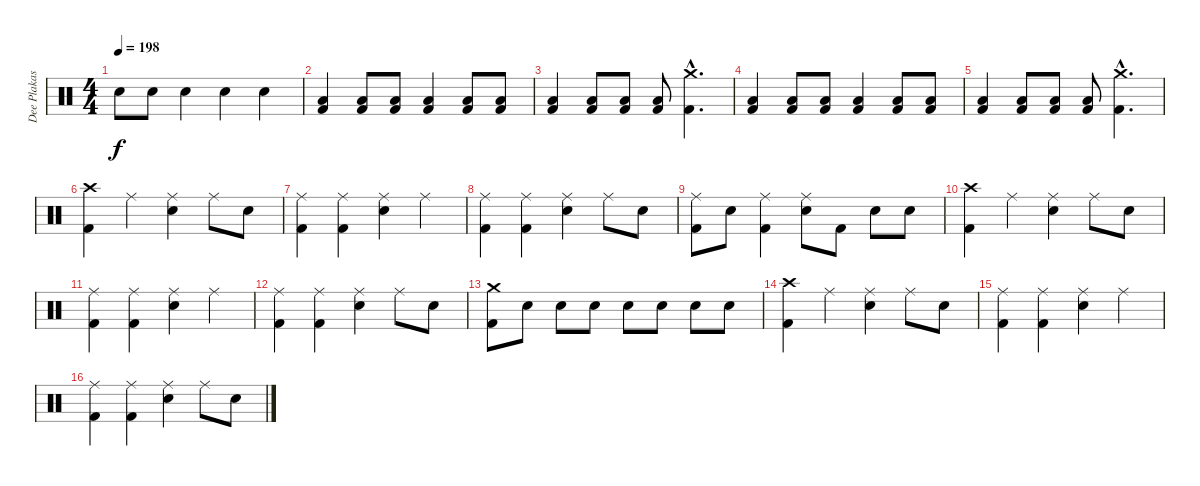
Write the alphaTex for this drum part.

\track ("Dee Plakas" "Dee Plakas") {instrument percussion}
\staff {score}
\articulation defaults
\ts (4 4)
\tempo 198
\clef neutral
\ks c "Snare (hit) 2".8{dy f} "Snare (hit) 2".8 "Snare (hit) 2".4 "Snare (hit) 2".4 "Snare (hit) 2".4
|
("Low Floor Tom (hit)" "Kick (hit) 2").4 ("Low Floor Tom (hit)" "Kick (hit) 2").8 ("Low Floor Tom (hit)" "Kick (hit) 2").8 ("Low Floor Tom (hit)" "Kick (hit) 2").4 ("Low Floor Tom (hit)" "Kick (hit) 2").8 ("Low Floor Tom (hit)" "Kick (hit) 2").8 |
("Low Floor Tom (hit)" "Kick (hit) 2").4 ("Low Floor Tom (hit)" "Kick (hit) 2").8 ("Low Floor Tom (hit)" "Kick (hit) 2").8 ("Low Floor Tom (hit)" "Kick (hit) 2").8 ("Crash medium (hit)"{hac} "Kick (hit) 2"{hac}).4{d} |
("Low Floor Tom (hit)" "Kick (hit) 2").4 ("Low Floor Tom (hit)" "Kick (hit) 2").8 ("Low Floor Tom (hit)" "Kick (hit) 2").8 ("Low Floor Tom (hit)" "Kick (hit) 2").4 ("Low Floor Tom (hit)" "Kick (hit) 2").8 ("Low Floor Tom (hit)" "Kick (hit) 2").8 |
("Low Floor Tom (hit)" "Kick (hit) 2").4 ("Low Floor Tom (hit)" "Kick (hit) 2").8 ("Low Floor Tom (hit)" "Kick (hit) 2").8 ("Low Floor Tom (hit)" "Kick (hit) 2").8 ("Crash medium (hit)"{hac} "Kick (hit) 2"{hac}).4{d} |
("Crash high (hit)" "Kick (hit) 2").4 "Ride (middle)".4 ("Ride (middle)" "Snare (hit) 2").4 "Ride (middle)".8 "Snare (hit) 2".8 |
("Ride (middle)" "Kick (hit) 2").4 ("Ride (middle)" "Kick (hit) 2").4 ("Ride (middle)" "Snare (hit) 2").4 "Ride (middle)".4 |
("Ride (middle)" "Kick (hit) 2").4 ("Ride (middle)" "Kick (hit) 2").4 ("Ride (middle)" "Snare (hit) 2").4 "Ride (middle)".8 "Snare (hit) 2".8 |
("Ride (middle)" "Kick (hit) 2").8 "Snare (hit) 2".8 ("Ride (middle)" "Kick (hit) 2").4 ("Ride (middle)" "Snare (hit) 2").8 "Kick (hit) 2".8 "Snare (hit) 2".8 "Snare (hit) 2".8 |
("Crash high (hit)" "Kick (hit) 2").4 "Ride (middle)".4 ("Ride (middle)" "Snare (hit) 2").4 "Ride (middle)".8 "Snare (hit) 2".8 |
("Ride (middle)" "Kick (hit) 2").4 ("Ride (middle)" "Kick (hit) 2").4 ("Ride (middle)" "Snare (hit) 2").4 "Ride (middle)".4 |
("Ride (middle)" "Kick (hit) 2").4 ("Ride (middle)" "Kick (hit) 2").4 ("Ride (middle)" "Snare (hit) 2").4 "Ride (middle)".8 "Snare (hit) 2".8 |
("Crash medium (hit)" "Kick (hit) 2").8 "Snare (hit) 2".8 "Snare (hit) 2".8 "Snare (hit) 2".8 "Snare (hit) 2".8 "Snare (hit) 2".8 "Snare (hit) 2".8 "Snare (hit) 2".8 |
("Crash high (hit)" "Kick (hit) 2").4 "Ride (middle)".4 ("Ride (middle)" "Snare (hit) 2").4 "Ride (middle)".8 "Snare (hit) 2".8 |
("Ride (middle)" "Kick (hit) 2").4 ("Ride (middle)" "Kick (hit) 2").4 ("Ride (middle)" "Snare (hit) 2").4 "Ride (middle)".4 |
("Ride (middle)" "Kick (hit) 2").4 ("Ride (middle)" "Kick (hit) 2").4 ("Ride (middle)" "Snare (hit) 2").4 "Ride (middle)".8 "Snare (hit) 2".8
